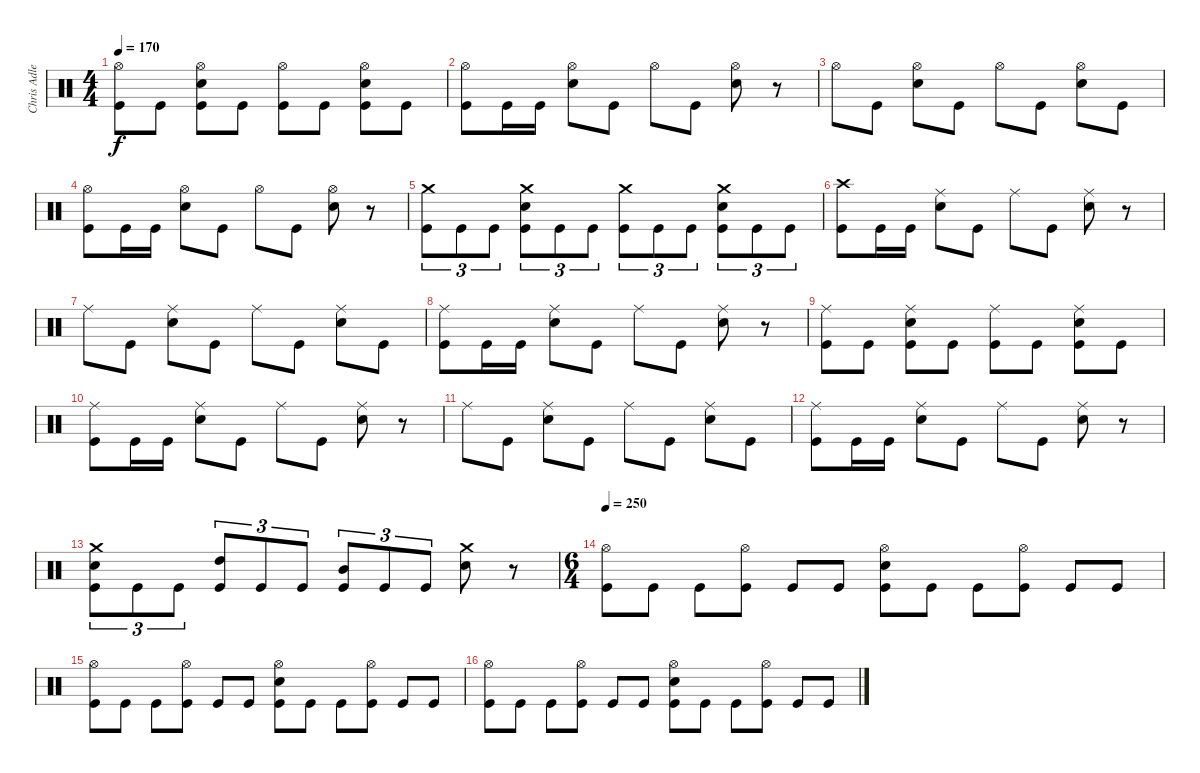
\track ("Chris Adler" "Chris Adle") {instrument percussion}
\staff {score}
\articulation defaults
\ts (4 4)
\tempo 170
\clef neutral
\ks c
("Hi-Hat (open)" "Kick (hit)").8{dy f} "Kick (hit)".8 ("Hi-Hat (open)" "Electric Snare (hit)" "Kick (hit)").8 "Kick (hit)".8 ("Hi-Hat (open)" "Kick (hit)").8 "Kick (hit)".8 ("Hi-Hat (open)" "Electric Snare (hit)" "Kick (hit)").8 "Kick (hit)".8 |
("Hi-Hat (open)" "Kick (hit)").8 "Kick (hit)".16 "Kick (hit)".16 ("Hi-Hat (open)" "Electric Snare (hit)").8 "Kick (hit)".8 "Hi-Hat (open)".8 "Kick (hit)".8 ("Hi-Hat (open)" "Electric Snare (hit)").8 r.8 |
"Hi-Hat (open)".8 "Kick (hit)".8 ("Hi-Hat (open)" "Electric Snare (hit)").8 "Kick (hit)".8 "Hi-Hat (open)".8 "Kick (hit)".8 ("Hi-Hat (open)" "Electric Snare (hit)").8 "Kick (hit)".8 |
("Hi-Hat (open)" "Kick (hit)").8 "Kick (hit)".16 "Kick (hit)".16 ("Hi-Hat (open)" "Electric Snare (hit)").8 "Kick (hit)".8 "Hi-Hat (open)".8 "Kick (hit)".8 ("Hi-Hat (open)" "Electric Snare (hit)").8 r.8 |
("Crash medium (hit)" "Kick (hit)").8{tu (3 2)} "Kick (hit)".8{tu (3 2)} "Kick (hit)".8{tu (3 2)} ("Crash medium (hit)" "Electric Snare (hit)" "Kick (hit)").8{tu (3 2)} "Kick (hit)".8{tu (3 2)} "Kick (hit)".8{tu (3 2)} ("Crash medium (hit)" "Kick (hit)").8{tu (3 2)} "Kick (hit)".8{tu (3 2)} "Kick (hit)".8{tu (3 2)} ("Crash medium (hit)" "Electric Snare (hit)" "Kick (hit)").8{tu (3 2)} "Kick (hit)".8{tu (3 2)} "Kick (hit)".8{tu (3 2)} |
("Crash high (hit)" "Kick (hit)").8 "Kick (hit)".16 "Kick (hit)".16 ("Ride (middle)" "Electric Snare (hit)").8 "Kick (hit)".8 "Ride (middle)".8 "Kick (hit)".8 ("Ride (middle)" "Electric Snare (hit)").8 r.8 |
"Ride (middle)".8 "Kick (hit)".8 ("Ride (middle)" "Electric Snare (hit)").8 "Kick (hit)".8 "Ride (middle)".8 "Kick (hit)".8 ("Ride (middle)" "Electric Snare (hit)").8 "Kick (hit)".8 |
("Ride (middle)" "Kick (hit)").8 "Kick (hit)".16 "Kick (hit)".16 ("Ride (middle)" "Electric Snare (hit)").8 "Kick (hit)".8 "Ride (middle)".8 "Kick (hit)".8 ("Ride (middle)" "Electric Snare (hit)").8 r.8 |
("Ride (middle)" "Kick (hit)").8 "Kick (hit)".8 ("Ride (middle)" "Electric Snare (hit)" "Kick (hit)").8 "Kick (hit)".8 ("Ride (middle)" "Kick (hit)").8 "Kick (hit)".8 ("Ride (middle)" "Electric Snare (hit)" "Kick (hit)").8 "Kick (hit)".8 |
("Ride (middle)" "Kick (hit)").8 "Kick (hit)".16 "Kick (hit)".16 ("Ride (middle)" "Electric Snare (hit)").8 "Kick (hit)".8 "Ride (middle)".8 "Kick (hit)".8 ("Ride (middle)" "Electric Snare (hit)").8 r.8 |
"Ride (middle)".8 "Kick (hit)".8 ("Ride (middle)" "Electric Snare (hit)").8 "Kick (hit)".8 "Ride (middle)".8 "Kick (hit)".8 ("Ride (middle)" "Electric Snare (hit)").8 "Kick (hit)".8 |
("Ride (middle)" "Kick (hit)").8 "Kick (hit)".16 "Kick (hit)".16 ("Ride (middle)" "Electric Snare (hit)").8 "Kick (hit)".8 "Ride (middle)".8 "Kick (hit)".8 ("Ride (middle)" "Electric Snare (hit)").8 r.8 |
("Crash medium (hit)" "Electric Snare (hit)" "Kick (hit)").8{tu (3 2)} "Kick (hit)".8{tu (3 2)} "Kick (hit)".8{tu (3 2)} ("High Tom (hit)" "Kick (hit)").8{tu (3 2)} "Kick (hit)".8{tu (3 2)} "Kick (hit)".8{tu (3 2)} ("Mid Tom (hit)" "Kick (hit)").8{tu (3 2)} "Kick (hit)".8{tu (3 2)} "Kick (hit)".8{tu (3 2)} ("Crash medium (hit)" "Electric Snare (hit)").8 r.8 |
\ts (6 4)
\tempo 250
("Hi-Hat (open)" "Kick (hit)").8 "Kick (hit)".8 "Kick (hit)".8 ("Hi-Hat (open)" "Kick (hit)").8 "Kick (hit)".8 "Kick (hit)".8 ("Hi-Hat (open)" "Electric Snare (hit)" "Kick (hit)").8 "Kick (hit)".8 "Kick (hit)".8 ("Hi-Hat (open)" "Kick (hit)").8 "Kick (hit)".8 "Kick (hit)".8 |
("Hi-Hat (open)" "Kick (hit)").8 "Kick (hit)".8 "Kick (hit)".8 ("Hi-Hat (open)" "Kick (hit)").8 "Kick (hit)".8 "Kick (hit)".8 ("Hi-Hat (open)" "Electric Snare (hit)" "Kick (hit)").8 "Kick (hit)".8 "Kick (hit)".8 ("Hi-Hat (open)" "Kick (hit)").8 "Kick (hit)".8 "Kick (hit)".8 |
("Hi-Hat (open)" "Kick (hit)").8 "Kick (hit)".8 "Kick (hit)".8 ("Hi-Hat (open)" "Kick (hit)").8 "Kick (hit)".8 "Kick (hit)".8 ("Hi-Hat (open)" "Electric Snare (hit)" "Kick (hit)").8 "Kick (hit)".8 "Kick (hit)".8 ("Hi-Hat (open)" "Kick (hit)").8 "Kick (hit)".8 "Kick (hit)".8
